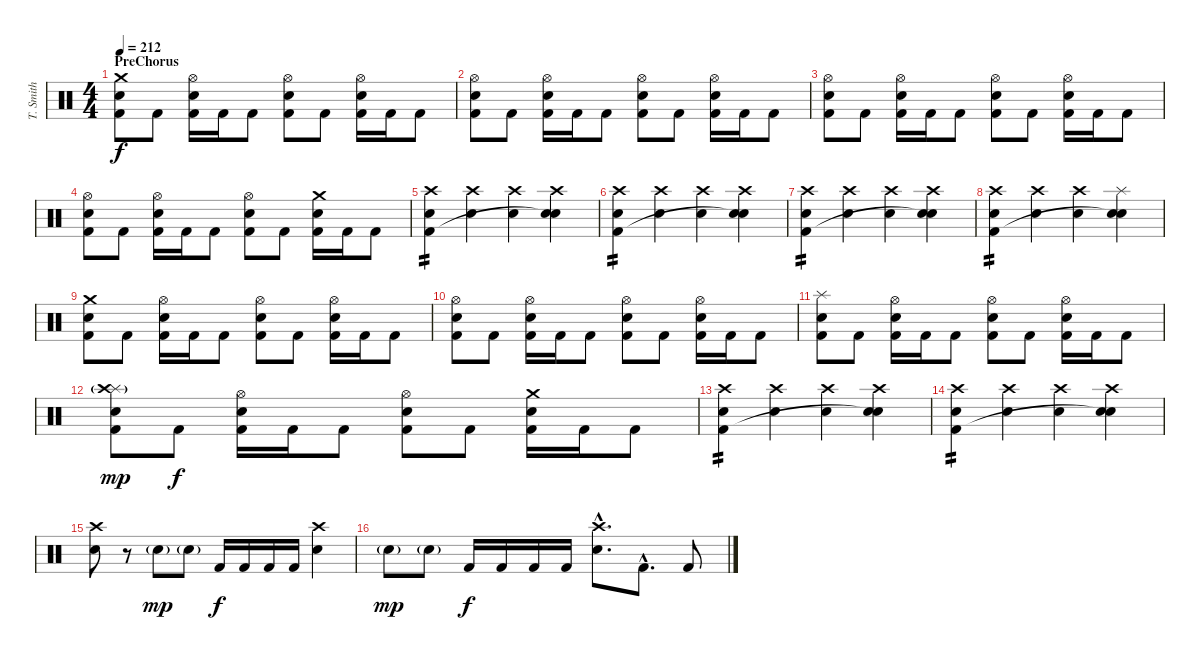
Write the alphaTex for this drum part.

\track ("T. Smith" "T. Smith") {instrument percussion}
\staff {score}
\articulation defaults
\ts (4 4)
\section ("" "PreChorus")
\tempo 212
\clef neutral
\ks c
("Crash medium (hit)" "Electric Snare (hit)" "Kick (hit) 2").8{dy f} "Kick (hit) 2".8 ("Hi-Hat (open)" "Electric Snare (hit)" "Kick (hit) 2").16 "Kick (hit) 2".16 "Kick (hit) 2".8 ("Hi-Hat (open)" "Electric Snare (hit)" "Kick (hit) 2").8 "Kick (hit) 2".8 ("Hi-Hat (open)" "Electric Snare (hit)" "Kick (hit) 2").16 "Kick (hit) 2".16 "Kick (hit) 2".8 |
("Hi-Hat (open)" "Electric Snare (hit)" "Kick (hit) 2").8 "Kick (hit) 2".8 ("Hi-Hat (open)" "Electric Snare (hit)" "Kick (hit) 2").16 "Kick (hit) 2".16 "Kick (hit) 2".8 ("Hi-Hat (open)" "Electric Snare (hit)" "Kick (hit) 2").8 "Kick (hit) 2".8 ("Hi-Hat (open)" "Electric Snare (hit)" "Kick (hit) 2").16 "Kick (hit) 2".16 "Kick (hit) 2".8 |
("Hi-Hat (open)" "Electric Snare (hit)" "Kick (hit) 2").8 "Kick (hit) 2".8 ("Hi-Hat (open)" "Electric Snare (hit)" "Kick (hit) 2").16 "Kick (hit) 2".16 "Kick (hit) 2".8 ("Hi-Hat (open)" "Electric Snare (hit)" "Kick (hit) 2").8 "Kick (hit) 2".8 ("Hi-Hat (open)" "Electric Snare (hit)" "Kick (hit) 2").16 "Kick (hit) 2".16 "Kick (hit) 2".8 |
("Hi-Hat (open)" "Electric Snare (hit)" "Kick (hit) 2").8 "Kick (hit) 2".8 ("Hi-Hat (open)" "Electric Snare (hit)" "Kick (hit) 2").16 "Kick (hit) 2".16 "Kick (hit) 2".8 ("Hi-Hat (open)" "Electric Snare (hit)" "Kick (hit) 2").8 "Kick (hit) 2".8 ("Crash medium (hit)" "Electric Snare (hit)" "Kick (hit) 2").16 "Kick (hit) 2".16 "Kick (hit) 2".8 |
("Crash high (hit)" "Electric Snare (hit)" "Kick (hit) 2").4{tp 2} ("Crash high (hit)" "Electric Snare (hit)").4 ("Crash high (hit)" "Electric Snare (hit)").4 ("Crash high (hit)" "Electric Snare (hit)" "Snare (hit)"{t}).4 |
("Crash high (hit)" "Electric Snare (hit)" "Kick (hit) 2").4{tp 2} ("Crash high (hit)" "Electric Snare (hit)").4 ("Crash high (hit)" "Electric Snare (hit)").4 ("Crash high (hit)" "Electric Snare (hit)" "Snare (hit)"{t}).4 |
("Crash high (hit)" "Electric Snare (hit)" "Kick (hit) 2").4{tp 2} ("Crash high (hit)" "Electric Snare (hit)").4 ("Crash high (hit)" "Electric Snare (hit)").4 ("Crash high (hit)" "Electric Snare (hit)" "Snare (hit)"{t}).4 |
("Crash high (hit)" "Electric Snare (hit)" "Kick (hit) 2").4{tp 2} ("Crash high (hit)" "Electric Snare (hit)").4 ("Crash high (hit)" "Electric Snare (hit)").4 ("Splash (hit)" "Electric Snare (hit)" "Snare (hit)"{t}).4 |
("Crash medium (hit)" "Electric Snare (hit)" "Kick (hit) 2").8 "Kick (hit) 2".8 ("Hi-Hat (open)" "Electric Snare (hit)" "Kick (hit) 2").16 "Kick (hit) 2".16 "Kick (hit) 2".8 ("Hi-Hat (open)" "Electric Snare (hit)" "Kick (hit) 2").8 "Kick (hit) 2".8 ("Hi-Hat (open)" "Electric Snare (hit)" "Kick (hit) 2").16 "Kick (hit) 2".16 "Kick (hit) 2".8 |
("Hi-Hat (open)" "Electric Snare (hit)" "Kick (hit) 2").8 "Kick (hit) 2".8 ("Hi-Hat (open)" "Electric Snare (hit)" "Kick (hit) 2").16 "Kick (hit) 2".16 "Kick (hit) 2".8 ("Hi-Hat (open)" "Electric Snare (hit)" "Kick (hit) 2").8 "Kick (hit) 2".8 ("Hi-Hat (open)" "Electric Snare (hit)" "Kick (hit) 2").16 "Kick (hit) 2".16 "Kick (hit) 2".8 |
("Splash (hit)" "Electric Snare (hit)" "Kick (hit) 2").8 "Kick (hit) 2".8 ("Hi-Hat (open)" "Electric Snare (hit)" "Kick (hit) 2").16 "Kick (hit) 2".16 "Kick (hit) 2".8 ("Hi-Hat (open)" "Electric Snare (hit)" "Kick (hit) 2").8 "Kick (hit) 2".8 ("Hi-Hat (open)" "Electric Snare (hit)" "Kick (hit) 2").16 "Kick (hit) 2".16 "Kick (hit) 2".8 |
("Splash (hit)" "Crash high (hit)"{g} "Electric Snare (hit)" "Kick (hit) 2").8{dy mp} "Kick (hit) 2".8{dy f} ("Hi-Hat (open)" "Electric Snare (hit)" "Kick (hit) 2").16 "Kick (hit) 2".16 "Kick (hit) 2".8 ("Hi-Hat (open)" "Electric Snare (hit)" "Kick (hit) 2").8 "Kick (hit) 2".8 ("Crash medium (hit)" "Electric Snare (hit)" "Kick (hit) 2").16 "Kick (hit) 2".16 "Kick (hit) 2".8 |
("Crash high (hit)" "Electric Snare (hit)" "Kick (hit) 2").4{tp 2} ("Crash high (hit)" "Electric Snare (hit)").4 ("Crash high (hit)" "Electric Snare (hit)").4 ("Crash high (hit)" "Electric Snare (hit)" "Snare (hit)"{t}).4 |
("Crash high (hit)" "Electric Snare (hit)" "Kick (hit) 2").4{tp 2} ("Crash high (hit)" "Electric Snare (hit)").4 ("Crash high (hit)" "Electric Snare (hit)").4 ("Crash high (hit)" "Electric Snare (hit)" "Snare (hit)"{t}).4 |
("Crash high (hit)" "Electric Snare (hit)").8 r.8 "Electric Snare (hit)"{g}.8{dy mp} "Electric Snare (hit)"{g}.8 "Kick (hit) 2".16{dy f} "Kick (hit) 2".16 "Kick (hit) 2".16 "Kick (hit) 2".16 ("Crash high (hit)" "Electric Snare (hit)").4 |
"Electric Snare (hit)"{g}.8{dy mp} "Electric Snare (hit)"{g}.8 "Kick (hit) 2".16{dy f} "Kick (hit) 2".16 "Kick (hit) 2".16 "Kick (hit) 2".16 ("Crash high (hit)"{hac} "Electric Snare (hit)"{hac}).8{d} "Kick (hit) 2"{hac}.8{d} "Kick (hit) 2".8
